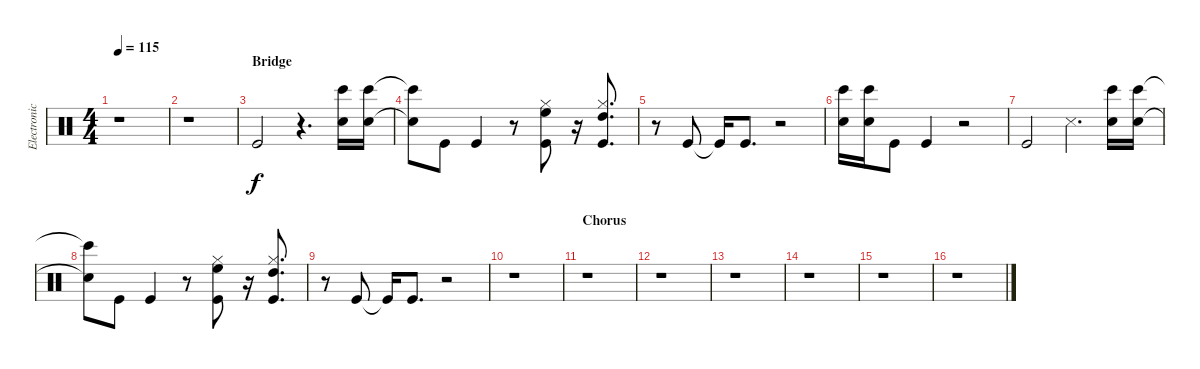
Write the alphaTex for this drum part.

\track ("Electronic Drums" "Electronic") {instrument percussion}
\staff {score}
\articulation defaults
\ts (4 4)
\tempo 115
\clef neutral
\ks c
r.1{dy f} |
r.1 |
\section ("" "Bridge")
"Kick (hit)".2 r.4{d} ("Bongo High (hit)" "Electric Snare (hit)").16 ("Bongo High (hit)" "Electric Snare (hit)").16 |
("Bongo High (hit)"{t} "Electric Snare (hit)"{t}).8 "Kick (hit)".8 "Kick (hit)".4 r.8 ("High Floor Tom (hit)" "Hi-Hat (closed)" "Kick (hit)").8 r.16 ("High Tom (hit)" "Hi-Hat (closed)" "Kick (hit)").8{d} |
r.8 "Kick (hit)".8 "Kick (hit)"{t}.16 "Kick (hit)".8{d} r.2 |
("Bongo High (hit)" "Electric Snare (hit)").16 ("Bongo High (hit)" "Electric Snare (hit)").16 "Kick (hit)".8 "Kick (hit)".4 r.2 |
"Kick (hit)".2 "Snare (side stick) 3".4{d} ("Bongo High (hit)" "Electric Snare (hit)").16 ("Bongo High (hit)" "Electric Snare (hit)").16 |
("Bongo High (hit)"{t} "Electric Snare (hit)"{t}).8 "Kick (hit)".8 "Kick (hit)".4 r.8 ("High Floor Tom (hit)" "Hi-Hat (closed)" "Kick (hit)").8 r.16 ("High Tom (hit)" "Hi-Hat (closed)" "Kick (hit)").8{d} |
r.8 "Kick (hit)".8 "Kick (hit)"{t}.16 "Kick (hit)".8{d} r.2 |
r.1 |
\section ("" "Chorus")
r.1 |
r.1 |
r.1 |
r.1 |
r.1 |
r.1
